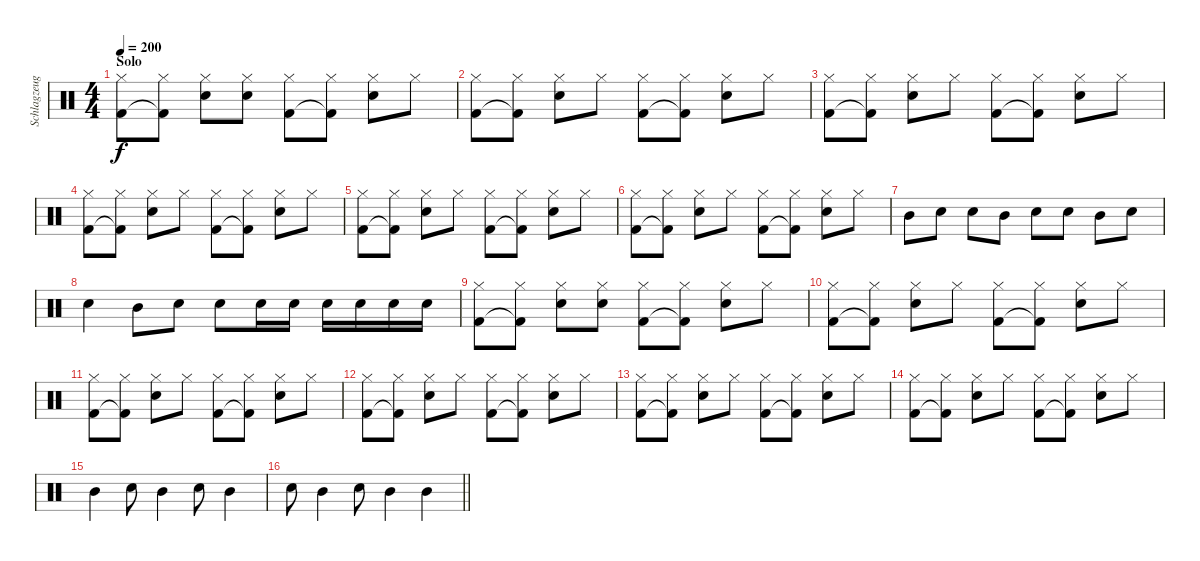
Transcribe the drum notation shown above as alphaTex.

\track ("Schlagzeug" "Schlagzeug") {instrument percussion}
\staff {score}
\articulation defaults
\ts (4 4)
\section ("" "Solo")
\tempo 200
\clef neutral
\ks c
("Hi-Hat (closed)" "Kick (hit) 2").8{dy f} ("Hi-Hat (closed)" "Kick (hit) 2"{t}).8 ("Hi-Hat (closed)" "Electric Snare (hit)").8 ("Hi-Hat (closed)" "Electric Snare (hit)").8 ("Hi-Hat (closed)" "Kick (hit) 2").8 ("Hi-Hat (closed)" "Kick (hit) 2"{t}).8 ("Hi-Hat (closed)" "Electric Snare (hit)").8 "Hi-Hat (closed)".8 |
("Hi-Hat (closed)" "Kick (hit) 2").8 ("Hi-Hat (closed)" "Kick (hit) 2"{t}).8 ("Hi-Hat (closed)" "Electric Snare (hit)").8 "Hi-Hat (closed)".8 ("Hi-Hat (closed)" "Kick (hit) 2").8 ("Hi-Hat (closed)" "Kick (hit) 2"{t}).8 ("Hi-Hat (closed)" "Electric Snare (hit)").8 "Hi-Hat (closed)".8 |
("Hi-Hat (closed)" "Kick (hit) 2").8 ("Hi-Hat (closed)" "Kick (hit) 2"{t}).8 ("Hi-Hat (closed)" "Electric Snare (hit)").8 "Hi-Hat (closed)".8 ("Hi-Hat (closed)" "Kick (hit) 2").8 ("Hi-Hat (closed)" "Kick (hit) 2"{t}).8 ("Hi-Hat (closed)" "Electric Snare (hit)").8 "Hi-Hat (closed)".8 |
("Hi-Hat (closed)" "Kick (hit) 2").8 ("Hi-Hat (closed)" "Kick (hit) 2"{t}).8 ("Hi-Hat (closed)" "Electric Snare (hit)").8 "Hi-Hat (closed)".8 ("Hi-Hat (closed)" "Kick (hit) 2").8 ("Hi-Hat (closed)" "Kick (hit) 2"{t}).8 ("Hi-Hat (closed)" "Electric Snare (hit)").8 "Hi-Hat (closed)".8 |
("Hi-Hat (closed)" "Kick (hit) 2").8 ("Hi-Hat (closed)" "Kick (hit) 2"{t}).8 ("Hi-Hat (closed)" "Electric Snare (hit)").8 "Hi-Hat (closed)".8 ("Hi-Hat (closed)" "Kick (hit) 2").8 ("Hi-Hat (closed)" "Kick (hit) 2"{t}).8 ("Hi-Hat (closed)" "Electric Snare (hit)").8 "Hi-Hat (closed)".8 |
("Hi-Hat (closed)" "Kick (hit) 2").8 ("Hi-Hat (closed)" "Kick (hit) 2"{t}).8 ("Hi-Hat (closed)" "Electric Snare (hit)").8 "Hi-Hat (closed)".8 ("Hi-Hat (closed)" "Kick (hit) 2").8 ("Hi-Hat (closed)" "Kick (hit) 2"{t}).8 ("Hi-Hat (closed)" "Electric Snare (hit)").8 "Hi-Hat (closed)".8 |
"Mid Tom (hit)".8 "Electric Snare (hit)".8 "Electric Snare (hit)".8 "Mid Tom (hit)".8 "Electric Snare (hit)".8 "Electric Snare (hit)".8 "Mid Tom (hit)".8 "Electric Snare (hit)".8 |
"Electric Snare (hit)".4 "Mid Tom (hit)".8 "Electric Snare (hit)".8 "Electric Snare (hit)".8 "Electric Snare (hit)".16 "Electric Snare (hit)".16 "Electric Snare (hit)".16 "Electric Snare (hit)".16 "Electric Snare (hit)".16 "Electric Snare (hit)".16 |
("Hi-Hat (closed)" "Kick (hit) 2").8 ("Hi-Hat (closed)" "Kick (hit) 2"{t}).8 ("Hi-Hat (closed)" "Electric Snare (hit)").8 ("Hi-Hat (closed)" "Electric Snare (hit)").8 ("Hi-Hat (closed)" "Kick (hit) 2").8 ("Hi-Hat (closed)" "Kick (hit) 2"{t}).8 ("Hi-Hat (closed)" "Electric Snare (hit)").8 "Hi-Hat (closed)".8 |
("Hi-Hat (closed)" "Kick (hit) 2").8 ("Hi-Hat (closed)" "Kick (hit) 2"{t}).8 ("Hi-Hat (closed)" "Electric Snare (hit)").8 "Hi-Hat (closed)".8 ("Hi-Hat (closed)" "Kick (hit) 2").8 ("Hi-Hat (closed)" "Kick (hit) 2"{t}).8 ("Hi-Hat (closed)" "Electric Snare (hit)").8 "Hi-Hat (closed)".8 |
("Hi-Hat (closed)" "Kick (hit) 2").8 ("Hi-Hat (closed)" "Kick (hit) 2"{t}).8 ("Hi-Hat (closed)" "Electric Snare (hit)").8 "Hi-Hat (closed)".8 ("Hi-Hat (closed)" "Kick (hit) 2").8 ("Hi-Hat (closed)" "Kick (hit) 2"{t}).8 ("Hi-Hat (closed)" "Electric Snare (hit)").8 "Hi-Hat (closed)".8 |
("Hi-Hat (closed)" "Kick (hit) 2").8 ("Hi-Hat (closed)" "Kick (hit) 2"{t}).8 ("Hi-Hat (closed)" "Electric Snare (hit)").8 "Hi-Hat (closed)".8 ("Hi-Hat (closed)" "Kick (hit) 2").8 ("Hi-Hat (closed)" "Kick (hit) 2"{t}).8 ("Hi-Hat (closed)" "Electric Snare (hit)").8 "Hi-Hat (closed)".8 |
("Hi-Hat (closed)" "Kick (hit) 2").8 ("Hi-Hat (closed)" "Kick (hit) 2"{t}).8 ("Hi-Hat (closed)" "Electric Snare (hit)").8 "Hi-Hat (closed)".8 ("Hi-Hat (closed)" "Kick (hit) 2").8 ("Hi-Hat (closed)" "Kick (hit) 2"{t}).8 ("Hi-Hat (closed)" "Electric Snare (hit)").8 "Hi-Hat (closed)".8 |
("Hi-Hat (closed)" "Kick (hit) 2").8 ("Hi-Hat (closed)" "Kick (hit) 2"{t}).8 ("Hi-Hat (closed)" "Electric Snare (hit)").8 "Hi-Hat (closed)".8 ("Hi-Hat (closed)" "Kick (hit) 2").8 ("Hi-Hat (closed)" "Kick (hit) 2"{t}).8 ("Hi-Hat (closed)" "Electric Snare (hit)").8 "Hi-Hat (closed)".8 |
"Mid Tom (hit)".4 "Snare (hit) 2".8 "Mid Tom (hit)".4 "Snare (hit) 2".8 "Mid Tom (hit)".4 |
\barLineRight lightlight "Snare (hit) 2".8 "Mid Tom (hit)".4 "Snare (hit) 2".8 "Mid Tom (hit)".4 "Mid Tom (hit)".4
